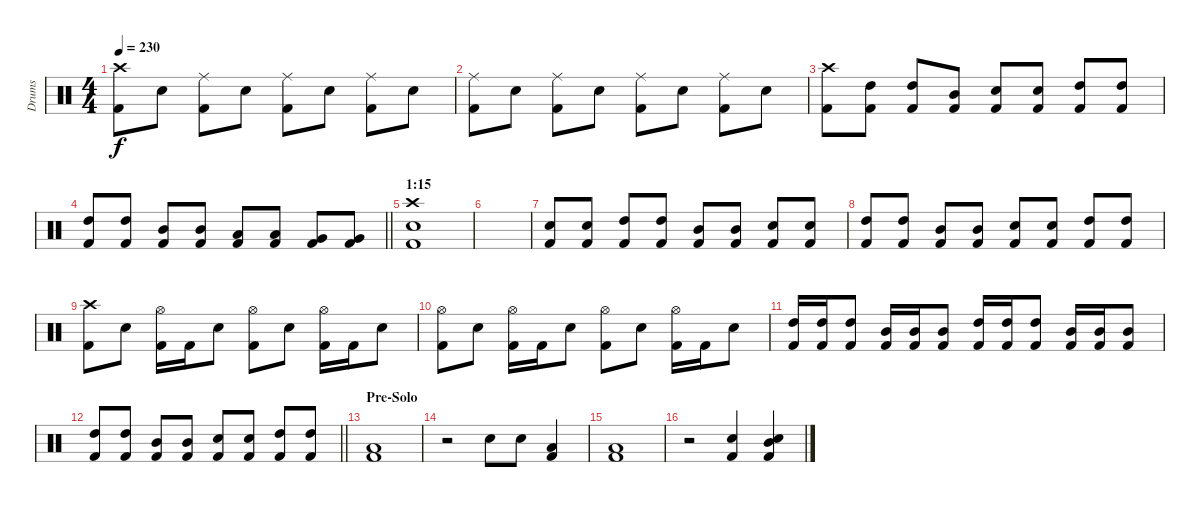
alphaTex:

\track ("Drums" "Drums") {instrument percussion}
\staff {score}
\articulation defaults
\ts (4 4)
\tempo 230
\clef neutral
\ks c
("Crash high (hit)" "Kick (hit) 2").8{dy f} "Electric Snare (hit)".8 ("Ride (middle)" "Kick (hit) 2").8 "Electric Snare (hit)".8 ("Ride (middle)" "Kick (hit) 2").8 "Electric Snare (hit)".8 ("Ride (middle)" "Kick (hit) 2").8 "Electric Snare (hit)".8 |
("Ride (middle)" "Kick (hit) 2").8 "Electric Snare (hit)".8 ("Ride (middle)" "Kick (hit) 2").8 "Electric Snare (hit)".8 ("Ride (middle)" "Kick (hit) 2").8 "Electric Snare (hit)".8 ("Ride (middle)" "Kick (hit) 2").8 "Electric Snare (hit)".8 |
("Crash high (hit)" "Kick (hit) 2").8 ("High Tom (hit)" "Kick (hit) 2").8 ("High Tom (hit)" "Kick (hit) 2").8 ("Mid Tom (hit)" "Kick (hit) 2").8 ("Electric Snare (hit)" "Kick (hit) 2").8 ("Electric Snare (hit)" "Kick (hit) 2").8 ("High Tom (hit)" "Kick (hit) 2").8 ("High Tom (hit)" "Kick (hit) 2").8 |
\barLineRight lightlight
("High Tom (hit)" "Kick (hit) 2").8 ("High Tom (hit)" "Kick (hit) 2").8 ("Mid Tom (hit)" "Kick (hit) 2").8 ("Mid Tom (hit)" "Kick (hit) 2").8 ("Low Tom (hit)" "Kick (hit) 2").8 ("Low Tom (hit)" "Kick (hit) 2").8 ("Very Low Tom (hit)" "Kick (hit) 2").8 ("Very Low Tom (hit)" "Kick (hit) 2").8 |
\section ("" "1:15")
("Crash high (hit)" "Electric Snare (hit)" "Kick (hit) 2").1 |
|
("Electric Snare (hit)" "Kick (hit) 2").8 ("Electric Snare (hit)" "Kick (hit) 2").8 ("High Tom (hit)" "Kick (hit) 2").8 ("High Tom (hit)" "Kick (hit) 2").8 ("Mid Tom (hit)" "Kick (hit) 2").8 ("Mid Tom (hit)" "Kick (hit) 2").8 ("Electric Snare (hit)" "Kick (hit) 2").8 ("Electric Snare (hit)" "Kick (hit) 2").8 |
("High Tom (hit)" "Kick (hit) 2").8 ("High Tom (hit)" "Kick (hit) 2").8 ("Mid Tom (hit)" "Kick (hit) 2").8 ("Mid Tom (hit)" "Kick (hit) 2").8 ("Electric Snare (hit)" "Kick (hit) 2").8 ("Electric Snare (hit)" "Kick (hit) 2").8 ("High Tom (hit)" "Kick (hit) 2").8 ("High Tom (hit)" "Kick (hit) 2").8 |
("Crash high (hit)" "Kick (hit) 2").8 "Electric Snare (hit)".8 ("Hi-Hat (open)" "Kick (hit) 2").16 "Kick (hit) 2".16 "Electric Snare (hit)".8 ("Hi-Hat (open)" "Kick (hit) 2").8 "Electric Snare (hit)".8 ("Hi-Hat (open)" "Kick (hit) 2").16 "Kick (hit) 2".16 "Electric Snare (hit)".8 |
("Hi-Hat (open)" "Kick (hit) 2").8 "Electric Snare (hit)".8 ("Hi-Hat (open)" "Kick (hit) 2").16 "Kick (hit) 2".16 "Electric Snare (hit)".8 ("Hi-Hat (open)" "Kick (hit) 2").8 "Electric Snare (hit)".8 ("Hi-Hat (open)" "Kick (hit) 2").16 "Kick (hit) 2".16 "Electric Snare (hit)".8 |
("High Tom (hit)" "Kick (hit) 2").16 ("High Tom (hit)" "Kick (hit) 2").16 ("High Tom (hit)" "Kick (hit) 2").8 ("Mid Tom (hit)" "Kick (hit) 2").16 ("Mid Tom (hit)" "Kick (hit) 2").16 ("Mid Tom (hit)" "Kick (hit) 2").8 ("High Tom (hit)" "Kick (hit) 2").16 ("High Tom (hit)" "Kick (hit) 2").16 ("High Tom (hit)" "Kick (hit) 2").8 ("Mid Tom (hit)" "Kick (hit) 2").16 ("Mid Tom (hit)" "Kick (hit) 2").16 ("Mid Tom (hit)" "Kick (hit) 2").8 |
\barLineRight lightlight
("High Tom (hit)" "Kick (hit) 2").8 ("High Tom (hit)" "Kick (hit) 2").8 ("Mid Tom (hit)" "Kick (hit) 2").8 ("Mid Tom (hit)" "Kick (hit) 2").8 ("Electric Snare (hit)" "Kick (hit) 2").8 ("Electric Snare (hit)" "Kick (hit) 2").8 ("High Tom (hit)" "Kick (hit) 2").8 ("High Tom (hit)" "Kick (hit) 2").8 |
\section ("" "Pre-Solo")
("Low Tom (hit)" "Kick (hit) 2").1 |
r.2 "Electric Snare (hit)".8 "Electric Snare (hit)".8 ("Low Tom (hit)" "Kick (hit) 2").4 |
("Low Tom (hit)" "Kick (hit) 2").1 |
r.2 ("Electric Snare (hit)" "Kick (hit) 2").4 ("Mid Tom (hit)" "Electric Snare (hit)" "Kick (hit) 2").4
